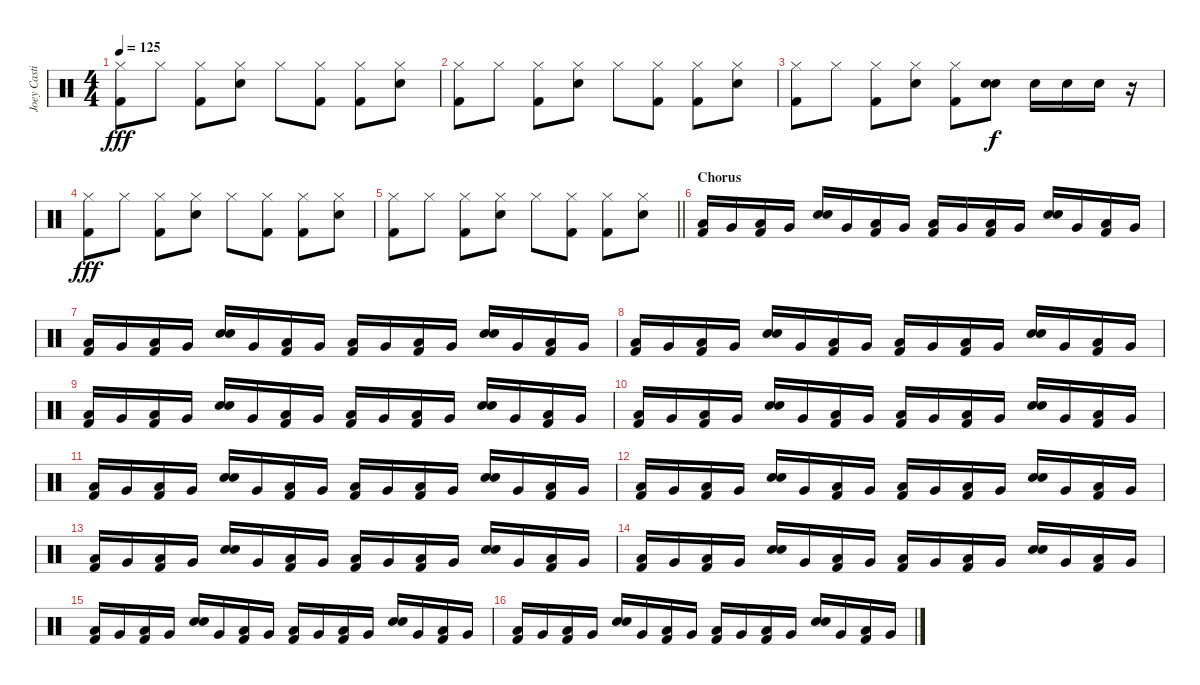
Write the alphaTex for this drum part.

\track ("Joey Castillo" "Joey Casti") {instrument percussion}
\staff {score}
\articulation defaults
\ts (4 4)
\tempo 125
\clef neutral
\ks c
("Hi-Hat (closed)" "Kick (hit) 2").8{dy fff} "Hi-Hat (closed)".8 ("Hi-Hat (closed)" "Kick (hit) 2").8 ("Hi-Hat (closed)" "Electric Snare (hit)").8 "Hi-Hat (closed)".8 ("Hi-Hat (closed)" "Kick (hit) 2").8 ("Hi-Hat (closed)" "Kick (hit) 2").8 ("Hi-Hat (closed)" "Electric Snare (hit)").8 |
("Hi-Hat (closed)" "Kick (hit) 2").8 "Hi-Hat (closed)".8 ("Hi-Hat (closed)" "Kick (hit) 2").8 ("Hi-Hat (closed)" "Electric Snare (hit)").8 "Hi-Hat (closed)".8 ("Hi-Hat (closed)" "Kick (hit) 2").8 ("Hi-Hat (closed)" "Kick (hit) 2").8 ("Hi-Hat (closed)" "Electric Snare (hit)").8 |
("Hi-Hat (closed)" "Kick (hit) 2").8 "Hi-Hat (closed)".8 ("Hi-Hat (closed)" "Kick (hit) 2").8 ("Hi-Hat (closed)" "Electric Snare (hit)").8 ("Hi-Hat (closed)" "Kick (hit) 2").8 ("Electric Snare (hit)" "Electric Snare (hit)").8{bu 240 dy f} "Electric Snare (hit)".16 "Electric Snare (hit)".16 "Electric Snare (hit)".16 r.16 |
("Hi-Hat (closed)" "Kick (hit) 2").8{dy fff} "Hi-Hat (closed)".8 ("Hi-Hat (closed)" "Kick (hit) 2").8 ("Hi-Hat (closed)" "Electric Snare (hit)").8 "Hi-Hat (closed)".8 ("Hi-Hat (closed)" "Kick (hit) 2").8 ("Hi-Hat (closed)" "Kick (hit) 2").8 ("Hi-Hat (closed)" "Electric Snare (hit)").8 |
\barLineRight lightlight
("Hi-Hat (closed)" "Kick (hit) 2").8 "Hi-Hat (closed)".8 ("Hi-Hat (closed)" "Kick (hit) 2").8 ("Hi-Hat (closed)" "Electric Snare (hit)").8 "Hi-Hat (closed)".8 ("Hi-Hat (closed)" "Kick (hit) 2").8 ("Hi-Hat (closed)" "Kick (hit) 2").8 ("Hi-Hat (closed)" "Electric Snare (hit)").8 |
\section ("" "Chorus")
("Low Tom (hit)" "Kick (hit) 2").16 "Very Low Tom (hit)".16 ("Low Tom (hit)" "Kick (hit) 2").16 "Very Low Tom (hit)".16 ("Electric Snare (hit)" "Electric Snare (hit)").16{bu 480} "Very Low Tom (hit)".16 ("Low Tom (hit)" "Kick (hit) 2").16 "Very Low Tom (hit)".16 ("Low Tom (hit)" "Kick (hit) 2").16 "Very Low Tom (hit)".16 ("Low Tom (hit)" "Kick (hit) 2").16 "Very Low Tom (hit)".16 ("Electric Snare (hit)" "Electric Snare (hit)").16{bu 480} "Very Low Tom (hit)".16 ("Low Tom (hit)" "Kick (hit) 2").16 "Very Low Tom (hit)".16 |
("Low Tom (hit)" "Kick (hit) 2").16 "Very Low Tom (hit)".16 ("Low Tom (hit)" "Kick (hit) 2").16 "Very Low Tom (hit)".16 ("Electric Snare (hit)" "Electric Snare (hit)").16{bu 480} "Very Low Tom (hit)".16 ("Low Tom (hit)" "Kick (hit) 2").16 "Very Low Tom (hit)".16 ("Low Tom (hit)" "Kick (hit) 2").16 "Very Low Tom (hit)".16 ("Low Tom (hit)" "Kick (hit) 2").16 "Very Low Tom (hit)".16 ("Electric Snare (hit)" "Electric Snare (hit)").16{bu 480} "Very Low Tom (hit)".16 ("Low Tom (hit)" "Kick (hit) 2").16 "Very Low Tom (hit)".16 |
("Low Tom (hit)" "Kick (hit) 2").16 "Very Low Tom (hit)".16 ("Low Tom (hit)" "Kick (hit) 2").16 "Very Low Tom (hit)".16 ("Electric Snare (hit)" "Electric Snare (hit)").16{bu 480} "Very Low Tom (hit)".16 ("Low Tom (hit)" "Kick (hit) 2").16 "Very Low Tom (hit)".16 ("Low Tom (hit)" "Kick (hit) 2").16 "Very Low Tom (hit)".16 ("Low Tom (hit)" "Kick (hit) 2").16 "Very Low Tom (hit)".16 ("Electric Snare (hit)" "Electric Snare (hit)").16{bu 480} "Very Low Tom (hit)".16 ("Low Tom (hit)" "Kick (hit) 2").16 "Very Low Tom (hit)".16 |
("Low Tom (hit)" "Kick (hit) 2").16 "Very Low Tom (hit)".16 ("Low Tom (hit)" "Kick (hit) 2").16 "Very Low Tom (hit)".16 ("Electric Snare (hit)" "Electric Snare (hit)").16{bu 480} "Very Low Tom (hit)".16 ("Low Tom (hit)" "Kick (hit) 2").16 "Very Low Tom (hit)".16 ("Low Tom (hit)" "Kick (hit) 2").16 "Very Low Tom (hit)".16 ("Low Tom (hit)" "Kick (hit) 2").16 "Very Low Tom (hit)".16 ("Electric Snare (hit)" "Electric Snare (hit)").16{bu 480} "Very Low Tom (hit)".16 ("Low Tom (hit)" "Kick (hit) 2").16 "Very Low Tom (hit)".16 |
("Low Tom (hit)" "Kick (hit) 2").16 "Very Low Tom (hit)".16 ("Low Tom (hit)" "Kick (hit) 2").16 "Very Low Tom (hit)".16 ("Electric Snare (hit)" "Electric Snare (hit)").16{bu 480} "Very Low Tom (hit)".16 ("Low Tom (hit)" "Kick (hit) 2").16 "Very Low Tom (hit)".16 ("Low Tom (hit)" "Kick (hit) 2").16 "Very Low Tom (hit)".16 ("Low Tom (hit)" "Kick (hit) 2").16 "Very Low Tom (hit)".16 ("Electric Snare (hit)" "Electric Snare (hit)").16{bu 480} "Very Low Tom (hit)".16 ("Low Tom (hit)" "Kick (hit) 2").16 "Very Low Tom (hit)".16 |
("Low Tom (hit)" "Kick (hit) 2").16 "Very Low Tom (hit)".16 ("Low Tom (hit)" "Kick (hit) 2").16 "Very Low Tom (hit)".16 ("Electric Snare (hit)" "Electric Snare (hit)").16{bu 480} "Very Low Tom (hit)".16 ("Low Tom (hit)" "Kick (hit) 2").16 "Very Low Tom (hit)".16 ("Low Tom (hit)" "Kick (hit) 2").16 "Very Low Tom (hit)".16 ("Low Tom (hit)" "Kick (hit) 2").16 "Very Low Tom (hit)".16 ("Electric Snare (hit)" "Electric Snare (hit)").16{bu 480} "Very Low Tom (hit)".16 ("Low Tom (hit)" "Kick (hit) 2").16 "Very Low Tom (hit)".16 |
("Low Tom (hit)" "Kick (hit) 2").16 "Very Low Tom (hit)".16 ("Low Tom (hit)" "Kick (hit) 2").16 "Very Low Tom (hit)".16 ("Electric Snare (hit)" "Electric Snare (hit)").16{bu 480} "Very Low Tom (hit)".16 ("Low Tom (hit)" "Kick (hit) 2").16 "Very Low Tom (hit)".16 ("Low Tom (hit)" "Kick (hit) 2").16 "Very Low Tom (hit)".16 ("Low Tom (hit)" "Kick (hit) 2").16 "Very Low Tom (hit)".16 ("Electric Snare (hit)" "Electric Snare (hit)").16{bu 480} "Very Low Tom (hit)".16 ("Low Tom (hit)" "Kick (hit) 2").16 "Very Low Tom (hit)".16 |
("Low Tom (hit)" "Kick (hit) 2").16 "Very Low Tom (hit)".16 ("Low Tom (hit)" "Kick (hit) 2").16 "Very Low Tom (hit)".16 ("Electric Snare (hit)" "Electric Snare (hit)").16{bu 480} "Very Low Tom (hit)".16 ("Low Tom (hit)" "Kick (hit) 2").16 "Very Low Tom (hit)".16 ("Low Tom (hit)" "Kick (hit) 2").16 "Very Low Tom (hit)".16 ("Low Tom (hit)" "Kick (hit) 2").16 "Very Low Tom (hit)".16 ("Electric Snare (hit)" "Electric Snare (hit)").16{bu 480} "Very Low Tom (hit)".16 ("Low Tom (hit)" "Kick (hit) 2").16 "Very Low Tom (hit)".16 |
("Low Tom (hit)" "Kick (hit) 2").16 "Very Low Tom (hit)".16 ("Low Tom (hit)" "Kick (hit) 2").16 "Very Low Tom (hit)".16 ("Electric Snare (hit)" "Electric Snare (hit)").16{bu 480} "Very Low Tom (hit)".16 ("Low Tom (hit)" "Kick (hit) 2").16 "Very Low Tom (hit)".16 ("Low Tom (hit)" "Kick (hit) 2").16 "Very Low Tom (hit)".16 ("Low Tom (hit)" "Kick (hit) 2").16 "Very Low Tom (hit)".16 ("Electric Snare (hit)" "Electric Snare (hit)").16{bu 480} "Very Low Tom (hit)".16 ("Low Tom (hit)" "Kick (hit) 2").16 "Very Low Tom (hit)".16 |
("Low Tom (hit)" "Kick (hit) 2").16 "Very Low Tom (hit)".16 ("Low Tom (hit)" "Kick (hit) 2").16 "Very Low Tom (hit)".16 ("Electric Snare (hit)" "Electric Snare (hit)").16{bu 480} "Very Low Tom (hit)".16 ("Low Tom (hit)" "Kick (hit) 2").16 "Very Low Tom (hit)".16 ("Low Tom (hit)" "Kick (hit) 2").16 "Very Low Tom (hit)".16 ("Low Tom (hit)" "Kick (hit) 2").16 "Very Low Tom (hit)".16 ("Electric Snare (hit)" "Electric Snare (hit)").16{bu 480} "Very Low Tom (hit)".16 ("Low Tom (hit)" "Kick (hit) 2").16 "Very Low Tom (hit)".16 |
("Low Tom (hit)" "Kick (hit) 2").16 "Very Low Tom (hit)".16 ("Low Tom (hit)" "Kick (hit) 2").16 "Very Low Tom (hit)".16 ("Electric Snare (hit)" "Electric Snare (hit)").16{bu 480} "Very Low Tom (hit)".16 ("Low Tom (hit)" "Kick (hit) 2").16 "Very Low Tom (hit)".16 ("Low Tom (hit)" "Kick (hit) 2").16 "Very Low Tom (hit)".16 ("Low Tom (hit)" "Kick (hit) 2").16 "Very Low Tom (hit)".16 ("Electric Snare (hit)" "Electric Snare (hit)").16{bu 480} "Very Low Tom (hit)".16 ("Low Tom (hit)" "Kick (hit) 2").16 "Very Low Tom (hit)".16
